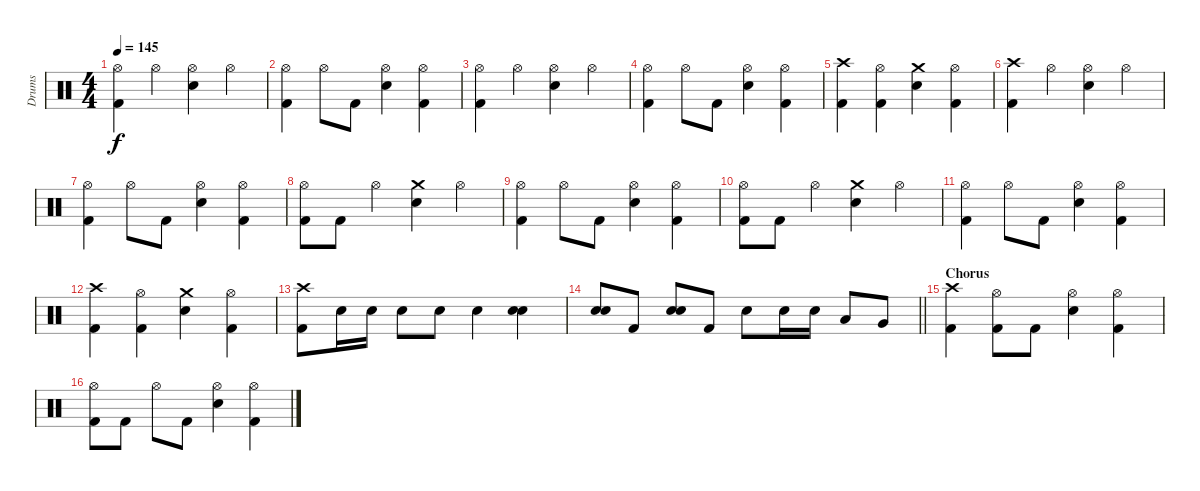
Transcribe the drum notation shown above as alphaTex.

\track ("Drums" "Drums") {instrument percussion}
\staff {score}
\articulation defaults
\ts (4 4)
\tempo 145
\clef neutral
\ks c
("Hi-Hat (open)" "Kick (hit) 2").4{dy f} "Hi-Hat (open)".4 ("Hi-Hat (open)" "Snare (hit) 2").4 "Hi-Hat (open)".4 |
("Hi-Hat (open)" "Kick (hit) 2").4 "Hi-Hat (open)".8 "Kick (hit) 2".8 ("Hi-Hat (open)" "Snare (hit) 2").4 ("Hi-Hat (open)" "Kick (hit) 2").4 |
("Hi-Hat (open)" "Kick (hit) 2").4 "Hi-Hat (open)".4 ("Hi-Hat (open)" "Snare (hit) 2").4 "Hi-Hat (open)".4 |
("Hi-Hat (open)" "Kick (hit) 2").4 "Hi-Hat (open)".8 "Kick (hit) 2".8 ("Hi-Hat (open)" "Snare (hit) 2").4 ("Hi-Hat (open)" "Kick (hit) 2").4 |
("Crash high (hit)" "Kick (hit) 2").4 ("Hi-Hat (open)" "Kick (hit) 2").4 ("Crash medium (hit)" "Snare (hit) 2").4 ("Hi-Hat (open)" "Kick (hit) 2").4 |
("Crash high (hit)" "Kick (hit) 2").4 "Hi-Hat (open)".4 ("Hi-Hat (open)" "Snare (hit) 2").4 "Hi-Hat (open)".4 |
("Hi-Hat (open)" "Kick (hit) 2").4 "Hi-Hat (open)".8 "Kick (hit) 2".8 ("Hi-Hat (open)" "Snare (hit) 2").4 ("Hi-Hat (open)" "Kick (hit) 2").4 |
("Hi-Hat (open)" "Kick (hit) 2").8 "Kick (hit) 2".8 "Hi-Hat (open)".4 ("Crash medium (hit)" "Snare (hit) 2").4 "Hi-Hat (open)".4 |
("Hi-Hat (open)" "Kick (hit) 2").4 "Hi-Hat (open)".8 "Kick (hit) 2".8 ("Hi-Hat (open)" "Snare (hit) 2").4 ("Hi-Hat (open)" "Kick (hit) 2").4 |
("Hi-Hat (open)" "Kick (hit) 2").8 "Kick (hit) 2".8 "Hi-Hat (open)".4 ("Crash medium (hit)" "Snare (hit) 2").4 "Hi-Hat (open)".4 |
("Hi-Hat (open)" "Kick (hit) 2").4 "Hi-Hat (open)".8 "Kick (hit) 2".8 ("Hi-Hat (open)" "Snare (hit) 2").4 ("Hi-Hat (open)" "Kick (hit) 2").4 |
("Crash high (hit)" "Kick (hit) 2").4 ("Hi-Hat (open)" "Kick (hit) 2").4 ("Crash medium (hit)" "Snare (hit) 2").4 ("Hi-Hat (open)" "Kick (hit) 2").4 |
("Crash high (hit)" "Kick (hit) 2").8 "Snare (hit) 2".16 "Snare (hit) 2".16 "Snare (hit) 2".8 "Snare (hit) 2".8 "Snare (hit) 2".4 ("Snare (hit) 2" "Snare (hit) 2").4{bd 120} |
\barLineRight lightlight
("Snare (hit) 2" "Snare (hit) 2").8{bd 120} "Kick (hit) 2".8 ("Snare (hit) 2" "Snare (hit) 2").8{bd 120} "Kick (hit) 2".8 "Snare (hit) 2".8 "Snare (hit) 2".16 "Snare (hit) 2".16 "Low Tom (hit)".8 "Very Low Tom (hit)".8 |
\section ("" "Chorus")
("Crash high (hit)" "Kick (hit) 2").4 ("Hi-Hat (open)" "Kick (hit) 2").8 "Kick (hit) 2".8 ("Hi-Hat (open)" "Snare (hit) 2").4 ("Hi-Hat (open)" "Kick (hit) 2").4 |
("Hi-Hat (open)" "Kick (hit) 2").8 "Kick (hit) 2".8 "Hi-Hat (open)".8 "Kick (hit) 2".8 ("Hi-Hat (open)" "Snare (hit) 2").4 ("Hi-Hat (open)" "Kick (hit) 2").4
